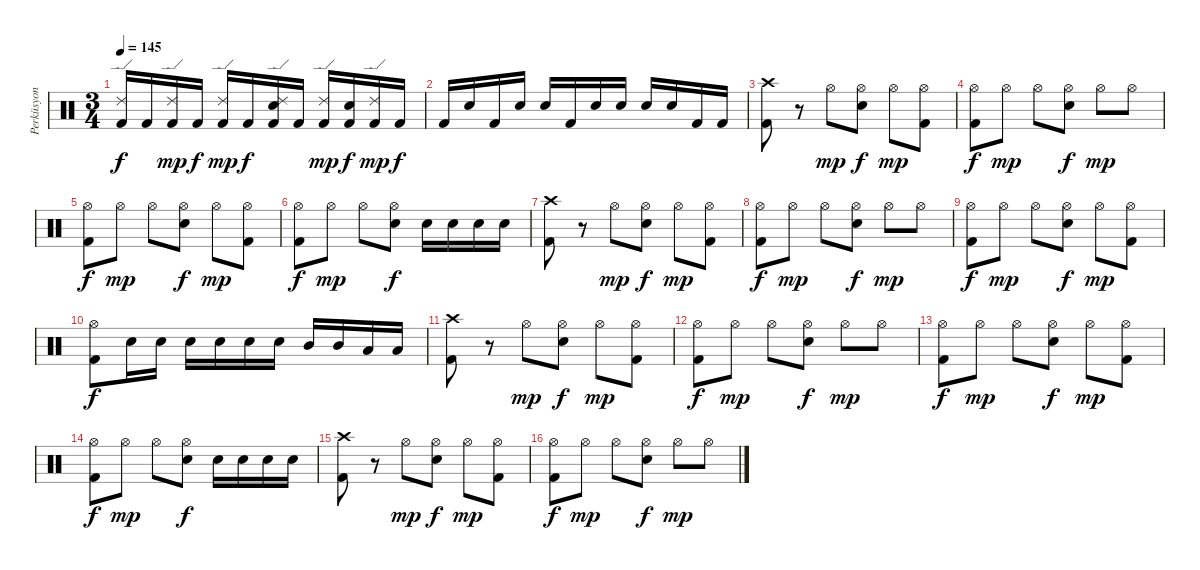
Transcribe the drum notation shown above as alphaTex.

\track ("Perküsyon" "Perküsyon") {instrument percussion}
\staff {score}
\articulation defaults
\ts (3 4)
\tempo 145
\clef neutral
\ks c
("Ride (edge) 2" "Kick (hit) 2").16{dy f} "Kick (hit) 2".16 ("Ride (edge) 2" "Kick (hit) 2").16{dy mp} "Kick (hit) 2".16{dy f} ("Ride (edge) 2" "Kick (hit) 2").16{dy mp} "Kick (hit) 2".16{dy f} ("Ride (edge) 2" "Snare (hit) 2" "Kick (hit) 2").16 "Kick (hit) 2".16 ("Ride (edge) 2" "Kick (hit) 2").16{dy mp} ("Snare (hit) 2" "Kick (hit) 2").16{dy f} ("Ride (edge) 2" "Kick (hit) 2").16{dy mp} "Kick (hit) 2".16{dy f} |
"Kick (hit) 2".16 "Snare (hit) 2".16 "Kick (hit) 2".16 "Snare (hit) 2".16 "Snare (hit) 2".16 "Kick (hit) 2".16 "Snare (hit) 2".16 "Snare (hit) 2".16 "Snare (hit) 2".16 "Snare (hit) 2".16 "Kick (hit) 2".16 "Kick (hit) 2".16 |
("Crash high (hit)" "Kick (hit) 2").8 r.8 "Hi-Hat (open)".8{dy mp} ("Snare (hit) 2" "Hi-Hat (open)").8{dy f} "Hi-Hat (open)".8{dy mp} ("Hi-Hat (open)" "Kick (hit) 2").8 |
("Hi-Hat (open)" "Kick (hit) 2").8{dy f} "Hi-Hat (open)".8{dy mp} "Hi-Hat (open)".8 ("Snare (hit) 2" "Hi-Hat (open)").8{dy f} "Hi-Hat (open)".8{dy mp} "Hi-Hat (open)".8 |
("Hi-Hat (open)" "Kick (hit) 2").8{dy f} "Hi-Hat (open)".8{dy mp} "Hi-Hat (open)".8 ("Snare (hit) 2" "Hi-Hat (open)").8{dy f} "Hi-Hat (open)".8{dy mp} ("Hi-Hat (open)" "Kick (hit) 2").8 |
("Hi-Hat (open)" "Kick (hit) 2").8{dy f} "Hi-Hat (open)".8{dy mp} "Hi-Hat (open)".8 ("Snare (hit) 2" "Hi-Hat (open)").8{dy f} "Snare (hit) 2".16 "Snare (hit) 2".16 "Snare (hit) 2".16 "Snare (hit) 2".16 |
("Crash high (hit)" "Kick (hit) 2").8 r.8 "Hi-Hat (open)".8{dy mp} ("Snare (hit) 2" "Hi-Hat (open)").8{dy f} "Hi-Hat (open)".8{dy mp} ("Hi-Hat (open)" "Kick (hit) 2").8 |
("Hi-Hat (open)" "Kick (hit) 2").8{dy f} "Hi-Hat (open)".8{dy mp} "Hi-Hat (open)".8 ("Snare (hit) 2" "Hi-Hat (open)").8{dy f} "Hi-Hat (open)".8{dy mp} "Hi-Hat (open)".8 |
("Hi-Hat (open)" "Kick (hit) 2").8{dy f} "Hi-Hat (open)".8{dy mp} "Hi-Hat (open)".8 ("Snare (hit) 2" "Hi-Hat (open)").8{dy f} "Hi-Hat (open)".8{dy mp} ("Hi-Hat (open)" "Kick (hit) 2").8 |
("Hi-Hat (open)" "Kick (hit) 2").8{dy f} "Snare (hit) 2".16 "Snare (hit) 2".16 "Snare (hit) 2".16 "Snare (hit) 2".16 "Snare (hit) 2".16 "Snare (hit) 2".16 "Mid Tom (hit)".16 "Mid Tom (hit)".16 "Low Tom (hit)".16 "Low Tom (hit)".16 |
("Crash high (hit)" "Kick (hit) 2").8 r.8 "Hi-Hat (open)".8{dy mp} ("Snare (hit) 2" "Hi-Hat (open)").8{dy f} "Hi-Hat (open)".8{dy mp} ("Hi-Hat (open)" "Kick (hit) 2").8 |
("Hi-Hat (open)" "Kick (hit) 2").8{dy f} "Hi-Hat (open)".8{dy mp} "Hi-Hat (open)".8 ("Snare (hit) 2" "Hi-Hat (open)").8{dy f} "Hi-Hat (open)".8{dy mp} "Hi-Hat (open)".8 |
("Hi-Hat (open)" "Kick (hit) 2").8{dy f} "Hi-Hat (open)".8{dy mp} "Hi-Hat (open)".8 ("Snare (hit) 2" "Hi-Hat (open)").8{dy f} "Hi-Hat (open)".8{dy mp} ("Hi-Hat (open)" "Kick (hit) 2").8 |
("Hi-Hat (open)" "Kick (hit) 2").8{dy f} "Hi-Hat (open)".8{dy mp} "Hi-Hat (open)".8 ("Snare (hit) 2" "Hi-Hat (open)").8{dy f} "Snare (hit) 2".16 "Snare (hit) 2".16 "Snare (hit) 2".16 "Snare (hit) 2".16 |
("Crash high (hit)" "Kick (hit) 2").8 r.8 "Hi-Hat (open)".8{dy mp} ("Snare (hit) 2" "Hi-Hat (open)").8{dy f} "Hi-Hat (open)".8{dy mp} ("Hi-Hat (open)" "Kick (hit) 2").8 |
("Hi-Hat (open)" "Kick (hit) 2").8{dy f} "Hi-Hat (open)".8{dy mp} "Hi-Hat (open)".8 ("Snare (hit) 2" "Hi-Hat (open)").8{dy f} "Hi-Hat (open)".8{dy mp} "Hi-Hat (open)".8
